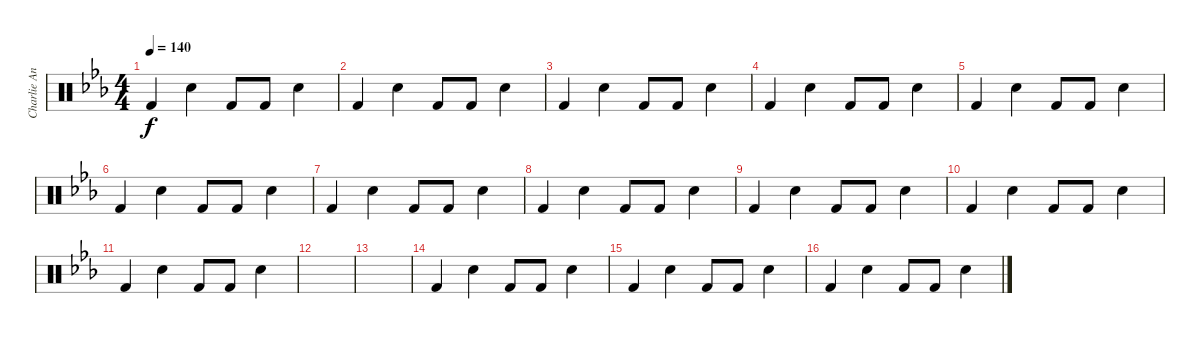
\track ("Charlie Angel" "Charlie An") {instrument percussion}
\staff {score}
\articulation defaults
\ts (4 4)
\tempo 140
\clef neutral
\ks eb "Kick (hit) 2".4{dy f} "Electric Snare (hit)".4 "Kick (hit) 2".8 "Kick (hit) 2".8 "Electric Snare (hit)".4
|
"Kick (hit) 2".4 "Electric Snare (hit)".4 "Kick (hit) 2".8 "Kick (hit) 2".8 "Electric Snare (hit)".4 |
"Kick (hit) 2".4 "Electric Snare (hit)".4 "Kick (hit) 2".8 "Kick (hit) 2".8 "Electric Snare (hit)".4 |
"Kick (hit) 2".4 "Electric Snare (hit)".4 "Kick (hit) 2".8 "Kick (hit) 2".8 "Electric Snare (hit)".4 |
"Kick (hit) 2".4 "Electric Snare (hit)".4 "Kick (hit) 2".8 "Kick (hit) 2".8 "Electric Snare (hit)".4 |
"Kick (hit) 2".4 "Electric Snare (hit)".4 "Kick (hit) 2".8 "Kick (hit) 2".8 "Electric Snare (hit)".4 |
"Kick (hit) 2".4 "Electric Snare (hit)".4 "Kick (hit) 2".8 "Kick (hit) 2".8 "Electric Snare (hit)".4 |
"Kick (hit) 2".4 "Electric Snare (hit)".4 "Kick (hit) 2".8 "Kick (hit) 2".8 "Electric Snare (hit)".4 |
"Kick (hit) 2".4 "Electric Snare (hit)".4 "Kick (hit) 2".8 "Kick (hit) 2".8 "Electric Snare (hit)".4 |
"Kick (hit) 2".4 "Electric Snare (hit)".4 "Kick (hit) 2".8 "Kick (hit) 2".8 "Electric Snare (hit)".4 |
"Kick (hit) 2".4 "Electric Snare (hit)".4 "Kick (hit) 2".8 "Kick (hit) 2".8 "Electric Snare (hit)".4 |
|
|
"Kick (hit) 2".4 "Electric Snare (hit)".4 "Kick (hit) 2".8 "Kick (hit) 2".8 "Electric Snare (hit)".4 |
"Kick (hit) 2".4 "Electric Snare (hit)".4 "Kick (hit) 2".8 "Kick (hit) 2".8 "Electric Snare (hit)".4 |
"Kick (hit) 2".4 "Electric Snare (hit)".4 "Kick (hit) 2".8 "Kick (hit) 2".8 "Electric Snare (hit)".4
